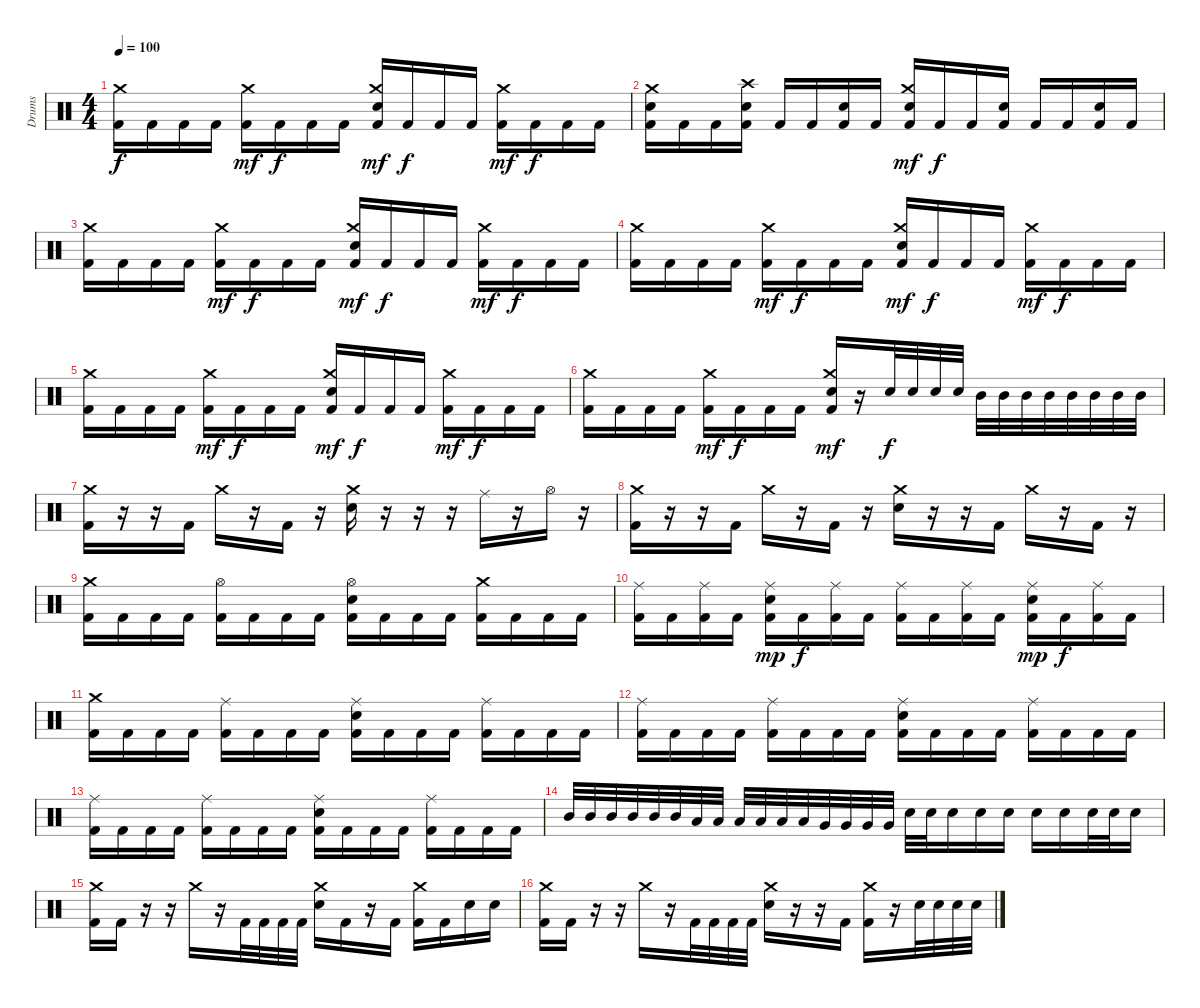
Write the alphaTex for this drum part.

\track ("Drums" "Drums") {instrument percussion}
\staff {score}
\articulation defaults
\ts (4 4)
\tempo 100
\clef neutral
\ks c
("Kick (hit) 2" "Crash medium (hit)").16{dy f} "Kick (hit) 2".16 "Kick (hit) 2".16 "Kick (hit) 2".16 ("Kick (hit) 2" "Crash medium (hit)").16{dy mf} "Kick (hit) 2".16{dy f} "Kick (hit) 2".16 "Kick (hit) 2".16 ("Kick (hit) 2" "Crash medium (hit)" "Electric Snare (hit)").16{dy mf} "Kick (hit) 2".16{dy f} "Kick (hit) 2".16 "Kick (hit) 2".16 ("Kick (hit) 2" "Crash medium (hit)").16{dy mf} "Kick (hit) 2".16{dy f} "Kick (hit) 2".16 "Kick (hit) 2".16 |
("Kick (hit) 2" "Crash medium (hit)" "Electric Snare (hit)").16 "Kick (hit) 2".16 "Kick (hit) 2".16 ("Kick (hit) 2" "Electric Snare (hit)" "Crash high (hit)").16 "Kick (hit) 2".16 "Kick (hit) 2".16 ("Kick (hit) 2" "Electric Snare (hit)").16 "Kick (hit) 2".16 ("Kick (hit) 2" "Crash medium (hit)" "Electric Snare (hit)").16{dy mf} "Kick (hit) 2".16{dy f} "Kick (hit) 2".16 ("Kick (hit) 2" "Electric Snare (hit)").16 "Kick (hit) 2".16 "Kick (hit) 2".16 ("Kick (hit) 2" "Electric Snare (hit)").16 "Kick (hit) 2".16 |
("Kick (hit) 2" "Crash medium (hit)").16 "Kick (hit) 2".16 "Kick (hit) 2".16 "Kick (hit) 2".16 ("Kick (hit) 2" "Crash medium (hit)").16{dy mf} "Kick (hit) 2".16{dy f} "Kick (hit) 2".16 "Kick (hit) 2".16 ("Kick (hit) 2" "Crash medium (hit)" "Electric Snare (hit)").16{dy mf} "Kick (hit) 2".16{dy f} "Kick (hit) 2".16 "Kick (hit) 2".16 ("Kick (hit) 2" "Crash medium (hit)").16{dy mf} "Kick (hit) 2".16{dy f} "Kick (hit) 2".16 "Kick (hit) 2".16 |
("Kick (hit) 2" "Crash medium (hit)").16 "Kick (hit) 2".16 "Kick (hit) 2".16 "Kick (hit) 2".16 ("Kick (hit) 2" "Crash medium (hit)").16{dy mf} "Kick (hit) 2".16{dy f} "Kick (hit) 2".16 "Kick (hit) 2".16 ("Kick (hit) 2" "Crash medium (hit)" "Electric Snare (hit)").16{dy mf} "Kick (hit) 2".16{dy f} "Kick (hit) 2".16 "Kick (hit) 2".16 ("Kick (hit) 2" "Crash medium (hit)").16{dy mf} "Kick (hit) 2".16{dy f} "Kick (hit) 2".16 "Kick (hit) 2".16 |
("Kick (hit) 2" "Crash medium (hit)").16 "Kick (hit) 2".16 "Kick (hit) 2".16 "Kick (hit) 2".16 ("Kick (hit) 2" "Crash medium (hit)").16{dy mf} "Kick (hit) 2".16{dy f} "Kick (hit) 2".16 "Kick (hit) 2".16 ("Kick (hit) 2" "Crash medium (hit)" "Electric Snare (hit)").16{dy mf} "Kick (hit) 2".16{dy f} "Kick (hit) 2".16 "Kick (hit) 2".16 ("Kick (hit) 2" "Crash medium (hit)").16{dy mf} "Kick (hit) 2".16{dy f} "Kick (hit) 2".16 "Kick (hit) 2".16 |
("Kick (hit) 2" "Crash medium (hit)").16 "Kick (hit) 2".16 "Kick (hit) 2".16 "Kick (hit) 2".16 ("Kick (hit) 2" "Crash medium (hit)").16{dy mf} "Kick (hit) 2".16{dy f} "Kick (hit) 2".16 "Kick (hit) 2".16 ("Kick (hit) 2" "Crash medium (hit)" "Electric Snare (hit)").16{dy mf} r.16 "Electric Snare (hit)".32{dy f} "Electric Snare (hit)".32 "Electric Snare (hit)".32 "Electric Snare (hit)".32 "Mid Tom (hit)".32 "Mid Tom (hit)".32 "Mid Tom (hit)".32 "Mid Tom (hit)".32 "Mid Tom (hit)".32 "Mid Tom (hit)".32 "Mid Tom (hit)".32 "Mid Tom (hit)".32 |
("Kick (hit) 2" "Crash medium (hit)").16 r.16 r.16 "Kick (hit) 2".16 "Crash medium (hit)".16 r.16 "Kick (hit) 2".16 r.16 ("Electric Snare (hit)" "Crash medium (hit)").16 r.16 r.16 r.16 "Ride (middle)".16 r.16 "Hi-Hat (open)".16 r.16 |
("Kick (hit) 2" "Crash medium (hit)").16 r.16 r.16 "Kick (hit) 2".16 "Crash medium (hit)".16 r.16 "Kick (hit) 2".16 r.16 ("Crash medium (hit)" "Electric Snare (hit)").16 r.16 r.16 "Kick (hit) 2".16 "Crash medium (hit)".16 r.16 "Kick (hit) 2".16 r.16 |
("Kick (hit) 2" "Crash medium (hit)").16 "Kick (hit) 2".16 "Kick (hit) 2".16 "Kick (hit) 2".16 ("Kick (hit) 2" "Hi-Hat (open)").16 "Kick (hit) 2".16 "Kick (hit) 2".16 "Kick (hit) 2".16 ("Kick (hit) 2" "Hi-Hat (open)" "Electric Snare (hit)").16 "Kick (hit) 2".16 "Kick (hit) 2".16 "Kick (hit) 2".16 ("Kick (hit) 2" "Crash medium (hit)").16 "Kick (hit) 2".16 "Kick (hit) 2".16 "Kick (hit) 2".16 |
("Kick (hit) 2" "Ride (middle)").16 "Kick (hit) 2".16 ("Kick (hit) 2" "Ride (middle)").16 "Kick (hit) 2".16 ("Kick (hit) 2" "Ride (middle)" "Electric Snare (hit)").16{dy mp} "Kick (hit) 2".16{dy f} ("Kick (hit) 2" "Ride (middle)").16 "Kick (hit) 2".16 ("Kick (hit) 2" "Ride (middle)").16 "Kick (hit) 2".16 ("Kick (hit) 2" "Ride (middle)").16 "Kick (hit) 2".16 ("Kick (hit) 2" "Ride (middle)" "Electric Snare (hit)").16{dy mp} "Kick (hit) 2".16{dy f} ("Kick (hit) 2" "Ride (middle)").16 "Kick (hit) 2".16 |
("Kick (hit) 2" "Crash medium (hit)").16 "Kick (hit) 2".16 "Kick (hit) 2".16 "Kick (hit) 2".16 ("Kick (hit) 2" "Ride (middle)").16 "Kick (hit) 2".16 "Kick (hit) 2".16 "Kick (hit) 2".16 ("Kick (hit) 2" "Ride (middle)" "Electric Snare (hit)").16 "Kick (hit) 2".16 "Kick (hit) 2".16 "Kick (hit) 2".16 ("Kick (hit) 2" "Ride (middle)").16 "Kick (hit) 2".16 "Kick (hit) 2".16 "Kick (hit) 2".16 |
("Kick (hit) 2" "Ride (middle)").16 "Kick (hit) 2".16 "Kick (hit) 2".16 "Kick (hit) 2".16 ("Kick (hit) 2" "Ride (middle)").16 "Kick (hit) 2".16 "Kick (hit) 2".16 "Kick (hit) 2".16 ("Kick (hit) 2" "Ride (middle)" "Electric Snare (hit)").16 "Kick (hit) 2".16 "Kick (hit) 2".16 "Kick (hit) 2".16 ("Kick (hit) 2" "Ride (middle)").16 "Kick (hit) 2".16 "Kick (hit) 2".16 "Kick (hit) 2".16 |
("Kick (hit) 2" "Ride (middle)").16 "Kick (hit) 2".16 "Kick (hit) 2".16 "Kick (hit) 2".16 ("Kick (hit) 2" "Ride (middle)").16 "Kick (hit) 2".16 "Kick (hit) 2".16 "Kick (hit) 2".16 ("Kick (hit) 2" "Ride (middle)" "Electric Snare (hit)").16 "Kick (hit) 2".16 "Kick (hit) 2".16 "Kick (hit) 2".16 ("Kick (hit) 2" "Ride (middle)").16 "Kick (hit) 2".16 "Kick (hit) 2".16 "Kick (hit) 2".16 |
"Mid Tom (hit)".32 "Mid Tom (hit)".32 "Mid Tom (hit)".32 "Mid Tom (hit)".32 "Mid Tom (hit)".32 "Mid Tom (hit)".32 "Low Tom (hit)".32 "Low Tom (hit)".32 "Low Tom (hit)".32 "Low Tom (hit)".32 "Low Tom (hit)".32 "Low Tom (hit)".32 "Very Low Tom (hit)".32 "Very Low Tom (hit)".32 "Very Low Tom (hit)".32 "Very Low Tom (hit)".32 "Electric Snare (hit)".32 "Electric Snare (hit)".32 "Electric Snare (hit)".16 "Electric Snare (hit)".16 "Electric Snare (hit)".16 "Electric Snare (hit)".16 "Electric Snare (hit)".16 "Electric Snare (hit)".32 "Electric Snare (hit)".32 "Electric Snare (hit)".16 |
("Kick (hit) 2" "Crash medium (hit)").16 "Kick (hit) 2".16 r.16 r.16 "Crash medium (hit)".16 r.16 "Kick (hit) 2".32 "Kick (hit) 2".32 "Kick (hit) 2".32 "Kick (hit) 2".32 ("Electric Snare (hit)" "Crash medium (hit)").16 "Kick (hit) 2".16 r.16 "Kick (hit) 2".16 ("Kick (hit) 2" "Crash medium (hit)").16 "Kick (hit) 2".16 "Electric Snare (hit)".16 "Electric Snare (hit)".16 |
("Kick (hit) 2" "Crash medium (hit)").16 "Kick (hit) 2".16 r.16 r.16 "Crash medium (hit)".16 r.16 "Kick (hit) 2".32 "Kick (hit) 2".32 "Kick (hit) 2".32 "Kick (hit) 2".32 ("Electric Snare (hit)" "Crash medium (hit)").16 r.16 r.16 "Kick (hit) 2".16 ("Kick (hit) 2" "Crash medium (hit)").16 r.16 "Electric Snare (hit)".32 "Electric Snare (hit)".32 "Electric Snare (hit)".32 "Electric Snare (hit)".32
